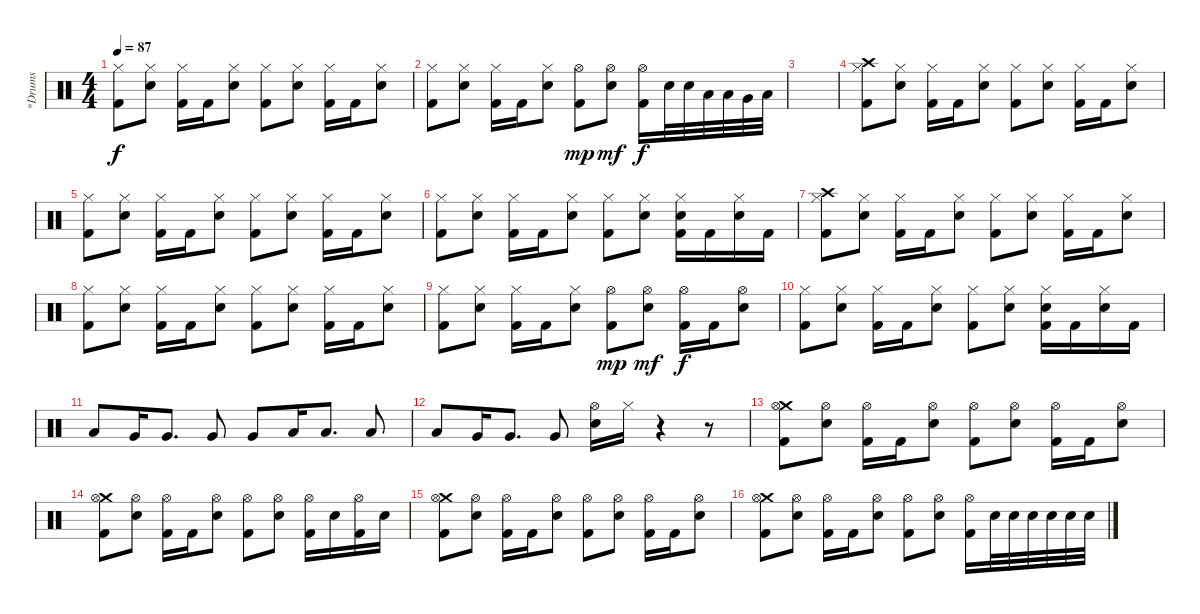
\track ("*Drums" "*Drums") {instrument percussion}
\staff {score}
\articulation defaults
\ts (4 4)
\tempo 87
\clef neutral
\ks c
("Hi-Hat (closed)" "Kick (hit) 2").8{dy f} ("Hi-Hat (closed)" "Electric Snare (hit)").8 ("Hi-Hat (closed)" "Kick (hit) 2").16 "Kick (hit) 2".16 ("Hi-Hat (closed)" "Electric Snare (hit)").8 ("Hi-Hat (closed)" "Kick (hit) 2").8 ("Hi-Hat (closed)" "Electric Snare (hit)").8 ("Hi-Hat (closed)" "Kick (hit) 2").16 "Kick (hit) 2".16 ("Hi-Hat (closed)" "Electric Snare (hit)").8 |
("Hi-Hat (closed)" "Kick (hit) 2").8 ("Hi-Hat (closed)" "Electric Snare (hit)").8 ("Hi-Hat (closed)" "Kick (hit) 2").16 "Kick (hit) 2".16 ("Hi-Hat (closed)" "Electric Snare (hit)").8 ("Hi-Hat (open)" "Kick (hit) 2").8{dy mp} ("Hi-Hat (open)" "Electric Snare (hit)").8{dy mf} ("Hi-Hat (open)" "Kick (hit) 2").16{dy f} "Electric Snare (hit)".32 "Electric Snare (hit)".32 "Low Tom (hit)".32 "Low Tom (hit)".32 "Very Low Tom (hit)".32 "Low Floor Tom (hit)".32 |
|
("Crash high (hit)" "Hi-Hat (closed)" "Kick (hit) 2").8 ("Hi-Hat (closed)" "Electric Snare (hit)").8 ("Hi-Hat (closed)" "Kick (hit) 2").16 "Kick (hit) 2".16 ("Hi-Hat (closed)" "Electric Snare (hit)").8 ("Hi-Hat (closed)" "Kick (hit) 2").8 ("Hi-Hat (closed)" "Electric Snare (hit)").8 ("Hi-Hat (closed)" "Kick (hit) 2").16 "Kick (hit) 2".16 ("Hi-Hat (closed)" "Electric Snare (hit)").8 |
("Hi-Hat (closed)" "Kick (hit) 2").8 ("Hi-Hat (closed)" "Electric Snare (hit)").8 ("Hi-Hat (closed)" "Kick (hit) 2").16 "Kick (hit) 2".16 ("Hi-Hat (closed)" "Electric Snare (hit)").8 ("Hi-Hat (closed)" "Kick (hit) 2").8 ("Hi-Hat (closed)" "Electric Snare (hit)").8 ("Hi-Hat (closed)" "Kick (hit) 2").16 "Kick (hit) 2".16 ("Hi-Hat (closed)" "Electric Snare (hit)").8 |
("Hi-Hat (closed)" "Kick (hit) 2").8 ("Hi-Hat (closed)" "Electric Snare (hit)").8 ("Hi-Hat (closed)" "Kick (hit) 2").16 "Kick (hit) 2".16 ("Hi-Hat (closed)" "Electric Snare (hit)").8 ("Hi-Hat (closed)" "Kick (hit) 2").8 ("Hi-Hat (closed)" "Electric Snare (hit)").8 ("Hi-Hat (closed)" "Electric Snare (hit)" "Kick (hit) 2").16 "Kick (hit) 2".16 ("Hi-Hat (closed)" "Electric Snare (hit)").16 "Kick (hit) 2".16 |
("Crash high (hit)" "Hi-Hat (closed)" "Kick (hit) 2").8 ("Hi-Hat (closed)" "Electric Snare (hit)").8 ("Hi-Hat (closed)" "Kick (hit) 2").16 "Kick (hit) 2".16 ("Hi-Hat (closed)" "Electric Snare (hit)").8 ("Hi-Hat (closed)" "Kick (hit) 2").8 ("Hi-Hat (closed)" "Electric Snare (hit)").8 ("Hi-Hat (closed)" "Kick (hit) 2").16 "Kick (hit) 2".16 ("Hi-Hat (closed)" "Electric Snare (hit)").8 |
("Hi-Hat (closed)" "Kick (hit) 2").8 ("Hi-Hat (closed)" "Electric Snare (hit)").8 ("Hi-Hat (closed)" "Kick (hit) 2").16 "Kick (hit) 2".16 ("Hi-Hat (closed)" "Electric Snare (hit)").8 ("Hi-Hat (closed)" "Kick (hit) 2").8 ("Hi-Hat (closed)" "Electric Snare (hit)").8 ("Hi-Hat (closed)" "Kick (hit) 2").16 "Kick (hit) 2".16 ("Hi-Hat (closed)" "Electric Snare (hit)").8 |
("Hi-Hat (closed)" "Kick (hit) 2").8 ("Hi-Hat (closed)" "Electric Snare (hit)").8 ("Hi-Hat (closed)" "Kick (hit) 2").16 "Kick (hit) 2".16 ("Hi-Hat (closed)" "Electric Snare (hit)").8 ("Hi-Hat (open)" "Kick (hit) 2").8{dy mp} ("Hi-Hat (open)" "Electric Snare (hit)").8{dy mf} ("Hi-Hat (open)" "Kick (hit) 2").16{dy f} "Kick (hit) 2".16 ("Hi-Hat (open)" "Electric Snare (hit)").8 |
("Hi-Hat (closed)" "Kick (hit) 2").8 ("Hi-Hat (closed)" "Electric Snare (hit)").8 ("Hi-Hat (closed)" "Kick (hit) 2").16 "Kick (hit) 2".16 ("Hi-Hat (closed)" "Electric Snare (hit)").8 ("Hi-Hat (closed)" "Kick (hit) 2").8 ("Hi-Hat (closed)" "Electric Snare (hit)").8 ("Hi-Hat (closed)" "Electric Snare (hit)" "Kick (hit) 2").16 "Kick (hit) 2".16 ("Hi-Hat (closed)" "Electric Snare (hit)").16 "Kick (hit) 2".16 |
"Low Tom (hit)".8 "Very Low Tom (hit)".16 "Very Low Tom (hit)".8{d} "Very Low Tom (hit)".8 "Very Low Tom (hit)".8 "Low Floor Tom (hit)".16 "Low Floor Tom (hit)".8{d} "Low Floor Tom (hit)".8 |
"Low Tom (hit)".8 "Very Low Tom (hit)".16 "Very Low Tom (hit)".8{d} "Very Low Tom (hit)".8 ("Hi-Hat (open)" "Electric Snare (hit)").16 "Hi-Hat (closed)".16 r.4 r.8 |
("Crash medium (hit)" "Hi-Hat (open)" "Kick (hit) 2").8 ("Hi-Hat (open)" "Electric Snare (hit)").8 ("Hi-Hat (open)" "Kick (hit) 2").16 "Kick (hit) 2".16 ("Hi-Hat (open)" "Electric Snare (hit)").8 ("Hi-Hat (open)" "Kick (hit) 2").8 ("Hi-Hat (open)" "Electric Snare (hit)").8 ("Hi-Hat (open)" "Kick (hit) 2").16 "Kick (hit) 2".16 ("Hi-Hat (open)" "Electric Snare (hit)").8 |
("Crash medium (hit)" "Hi-Hat (open)" "Kick (hit) 2").8 ("Hi-Hat (open)" "Electric Snare (hit)").8 ("Hi-Hat (open)" "Kick (hit) 2").16 "Kick (hit) 2".16 ("Hi-Hat (open)" "Electric Snare (hit)").8 ("Hi-Hat (open)" "Kick (hit) 2").8 ("Hi-Hat (open)" "Electric Snare (hit)").8 ("Hi-Hat (open)" "Kick (hit) 2").16 "Electric Snare (hit)".16 ("Hi-Hat (open)" "Kick (hit) 2").16 "Electric Snare (hit)".16 |
("Crash medium (hit)" "Hi-Hat (open)" "Kick (hit) 2").8 ("Hi-Hat (open)" "Electric Snare (hit)").8 ("Hi-Hat (open)" "Kick (hit) 2").16 "Kick (hit) 2".16 ("Hi-Hat (open)" "Electric Snare (hit)").8 ("Hi-Hat (open)" "Kick (hit) 2").8 ("Hi-Hat (open)" "Electric Snare (hit)").8 ("Hi-Hat (open)" "Kick (hit) 2").16 "Kick (hit) 2".16 ("Hi-Hat (open)" "Electric Snare (hit)").8 |
("Crash medium (hit)" "Hi-Hat (open)" "Kick (hit) 2").8 ("Hi-Hat (open)" "Electric Snare (hit)").8 ("Hi-Hat (open)" "Kick (hit) 2").16 "Kick (hit) 2".16 ("Hi-Hat (open)" "Electric Snare (hit)").8 ("Hi-Hat (open)" "Kick (hit) 2").8 ("Hi-Hat (open)" "Electric Snare (hit)").8 ("Hi-Hat (open)" "Kick (hit) 2").16 "Electric Snare (hit)".32 "Electric Snare (hit)".32 "Electric Snare (hit)".32 "Electric Snare (hit)".32 "Electric Snare (hit)".32 "Electric Snare (hit)".32
